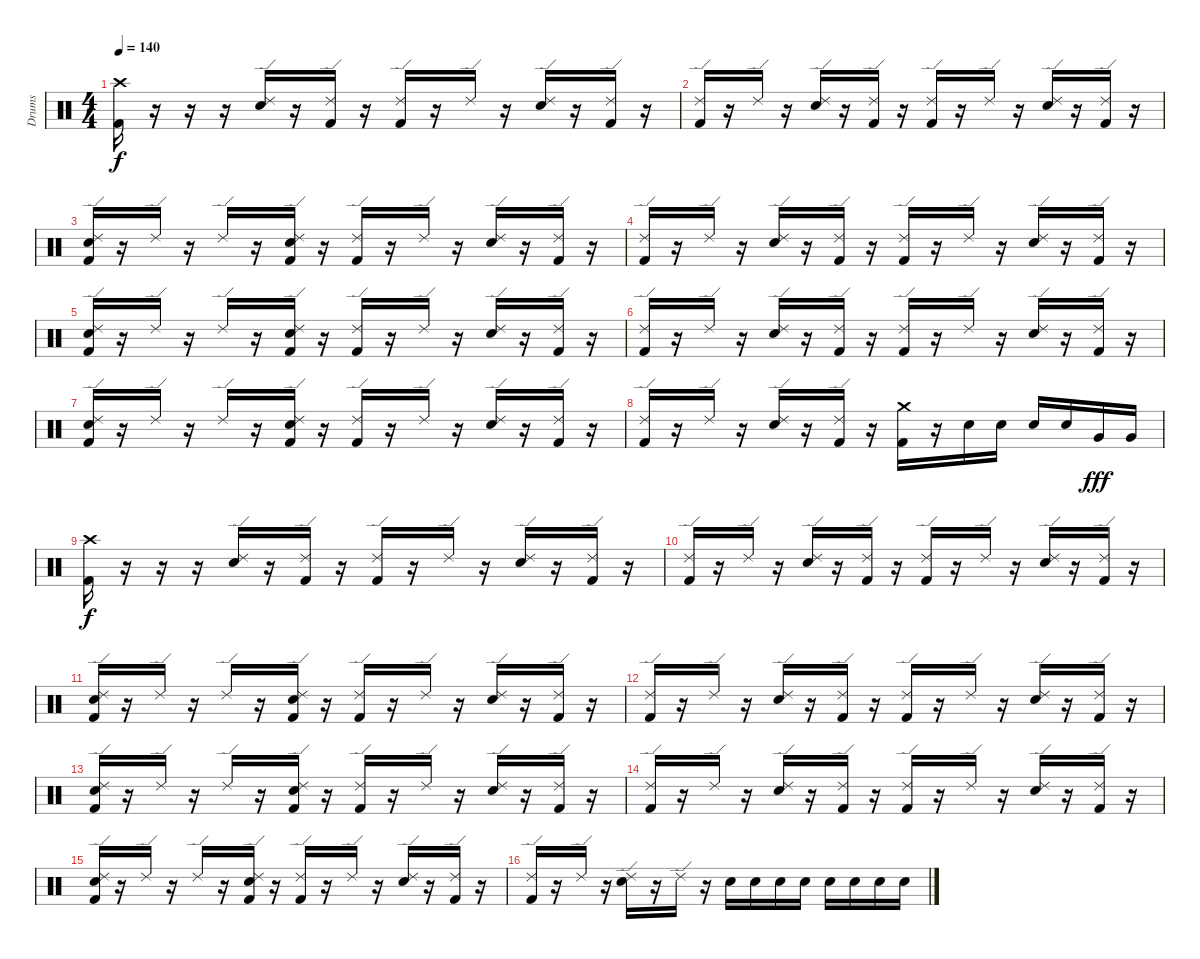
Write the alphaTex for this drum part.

\track ("Drums" "Drums") {instrument percussion}
\staff {score}
\articulation defaults
\ts (4 4)
\tempo 140
\clef neutral
\ks c
("Crash high (hit)" "Kick (hit) 2").16{dy f} r.16 r.16 r.16 ("Ride (edge) 2" "Electric Snare (hit)").16 r.16 ("Ride (edge) 2" "Kick (hit) 2").16 r.16 ("Ride (edge) 2" "Kick (hit) 2").16 r.16 "Ride (edge) 2".16 r.16 ("Ride (edge) 2" "Electric Snare (hit)").16 r.16 ("Ride (edge) 2" "Kick (hit) 2").16 r.16 |
("Ride (edge) 2" "Kick (hit) 2").16 r.16 "Ride (edge) 2".16 r.16 ("Ride (edge) 2" "Electric Snare (hit)").16 r.16 ("Ride (edge) 2" "Kick (hit) 2").16 r.16 ("Ride (edge) 2" "Kick (hit) 2").16 r.16 "Ride (edge) 2".16 r.16 ("Ride (edge) 2" "Electric Snare (hit)").16 r.16 ("Ride (edge) 2" "Kick (hit) 2").16 r.16 |
("Ride (edge) 2" "Electric Snare (hit)" "Kick (hit) 2").16 r.16 "Ride (edge) 2".16 r.16 "Ride (edge) 2".16 r.16 ("Ride (edge) 2" "Electric Snare (hit)" "Kick (hit) 2").16 r.16 ("Ride (edge) 2" "Kick (hit) 2").16 r.16 "Ride (edge) 2".16 r.16 ("Ride (edge) 2" "Electric Snare (hit)").16 r.16 ("Ride (edge) 2" "Kick (hit) 2").16 r.16 |
("Ride (edge) 2" "Kick (hit) 2").16 r.16 "Ride (edge) 2".16 r.16 ("Ride (edge) 2" "Electric Snare (hit)").16 r.16 ("Ride (edge) 2" "Kick (hit) 2").16 r.16 ("Ride (edge) 2" "Kick (hit) 2").16 r.16 "Ride (edge) 2".16 r.16 ("Ride (edge) 2" "Electric Snare (hit)").16 r.16 ("Ride (edge) 2" "Kick (hit) 2").16 r.16 |
("Ride (edge) 2" "Electric Snare (hit)" "Kick (hit) 2").16 r.16 "Ride (edge) 2".16 r.16 "Ride (edge) 2".16 r.16 ("Ride (edge) 2" "Electric Snare (hit)" "Kick (hit) 2").16 r.16 ("Ride (edge) 2" "Kick (hit) 2").16 r.16 "Ride (edge) 2".16 r.16 ("Ride (edge) 2" "Electric Snare (hit)").16 r.16 ("Ride (edge) 2" "Kick (hit) 2").16 r.16 |
("Ride (edge) 2" "Kick (hit) 2").16 r.16 "Ride (edge) 2".16 r.16 ("Ride (edge) 2" "Electric Snare (hit)").16 r.16 ("Ride (edge) 2" "Kick (hit) 2").16 r.16 ("Ride (edge) 2" "Kick (hit) 2").16 r.16 "Ride (edge) 2".16 r.16 ("Ride (edge) 2" "Electric Snare (hit)").16 r.16 ("Ride (edge) 2" "Kick (hit) 2").16 r.16 |
("Ride (edge) 2" "Electric Snare (hit)" "Kick (hit) 2").16 r.16 "Ride (edge) 2".16 r.16 "Ride (edge) 2".16 r.16 ("Ride (edge) 2" "Electric Snare (hit)" "Kick (hit) 2").16 r.16 ("Ride (edge) 2" "Kick (hit) 2").16 r.16 "Ride (edge) 2".16 r.16 ("Ride (edge) 2" "Electric Snare (hit)").16 r.16 ("Ride (edge) 2" "Kick (hit) 2").16 r.16 |
("Ride (edge) 2" "Kick (hit) 2").16 r.16 "Ride (edge) 2".16 r.16 ("Ride (edge) 2" "Electric Snare (hit)").16 r.16 ("Ride (edge) 2" "Kick (hit) 2").16 r.16 ("Crash medium (hit)" "Kick (hit) 2").16 r.16 "Electric Snare (hit)".16 "Electric Snare (hit)".16 "Electric Snare (hit)".16 "Electric Snare (hit)".16 "Very Low Tom (hit)".16{dy fff} "Very Low Tom (hit)".16 |
("Crash high (hit)" "Kick (hit) 2").16{dy f} r.16 r.16 r.16 ("Ride (edge) 2" "Electric Snare (hit)").16 r.16 ("Ride (edge) 2" "Kick (hit) 2").16 r.16 ("Ride (edge) 2" "Kick (hit) 2").16 r.16 "Ride (edge) 2".16 r.16 ("Ride (edge) 2" "Electric Snare (hit)").16 r.16 ("Ride (edge) 2" "Kick (hit) 2").16 r.16 |
("Ride (edge) 2" "Kick (hit) 2").16 r.16 "Ride (edge) 2".16 r.16 ("Ride (edge) 2" "Electric Snare (hit)").16 r.16 ("Ride (edge) 2" "Kick (hit) 2").16 r.16 ("Ride (edge) 2" "Kick (hit) 2").16 r.16 "Ride (edge) 2".16 r.16 ("Ride (edge) 2" "Electric Snare (hit)").16 r.16 ("Ride (edge) 2" "Kick (hit) 2").16 r.16 |
("Ride (edge) 2" "Electric Snare (hit)" "Kick (hit) 2").16 r.16 "Ride (edge) 2".16 r.16 "Ride (edge) 2".16 r.16 ("Ride (edge) 2" "Electric Snare (hit)" "Kick (hit) 2").16 r.16 ("Ride (edge) 2" "Kick (hit) 2").16 r.16 "Ride (edge) 2".16 r.16 ("Ride (edge) 2" "Electric Snare (hit)").16 r.16 ("Ride (edge) 2" "Kick (hit) 2").16 r.16 |
("Ride (edge) 2" "Kick (hit) 2").16 r.16 "Ride (edge) 2".16 r.16 ("Ride (edge) 2" "Electric Snare (hit)").16 r.16 ("Ride (edge) 2" "Kick (hit) 2").16 r.16 ("Ride (edge) 2" "Kick (hit) 2").16 r.16 "Ride (edge) 2".16 r.16 ("Ride (edge) 2" "Electric Snare (hit)").16 r.16 ("Ride (edge) 2" "Kick (hit) 2").16 r.16 |
("Ride (edge) 2" "Electric Snare (hit)" "Kick (hit) 2").16 r.16 "Ride (edge) 2".16 r.16 "Ride (edge) 2".16 r.16 ("Ride (edge) 2" "Electric Snare (hit)" "Kick (hit) 2").16 r.16 ("Ride (edge) 2" "Kick (hit) 2").16 r.16 "Ride (edge) 2".16 r.16 ("Ride (edge) 2" "Electric Snare (hit)").16 r.16 ("Ride (edge) 2" "Kick (hit) 2").16 r.16 |
("Ride (edge) 2" "Kick (hit) 2").16 r.16 "Ride (edge) 2".16 r.16 ("Ride (edge) 2" "Electric Snare (hit)").16 r.16 ("Ride (edge) 2" "Kick (hit) 2").16 r.16 ("Ride (edge) 2" "Kick (hit) 2").16 r.16 "Ride (edge) 2".16 r.16 ("Ride (edge) 2" "Electric Snare (hit)").16 r.16 ("Ride (edge) 2" "Kick (hit) 2").16 r.16 |
("Ride (edge) 2" "Electric Snare (hit)" "Kick (hit) 2").16 r.16 "Ride (edge) 2".16 r.16 "Ride (edge) 2".16 r.16 ("Ride (edge) 2" "Electric Snare (hit)" "Kick (hit) 2").16 r.16 ("Ride (edge) 2" "Kick (hit) 2").16 r.16 "Ride (edge) 2".16 r.16 ("Ride (edge) 2" "Electric Snare (hit)").16 r.16 ("Ride (edge) 2" "Kick (hit) 2").16 r.16 |
("Ride (edge) 2" "Kick (hit) 2").16 r.16 "Ride (edge) 2".16 r.16 ("Ride (edge) 2" "Electric Snare (hit)").16 r.16 "Ride (edge) 2".16 r.16 "Electric Snare (hit)".16 "Electric Snare (hit)".16 "Electric Snare (hit)".16 "Electric Snare (hit)".16 "Electric Snare (hit)".16 "Electric Snare (hit)".16 "Electric Snare (hit)".16 "Electric Snare (hit)".16
